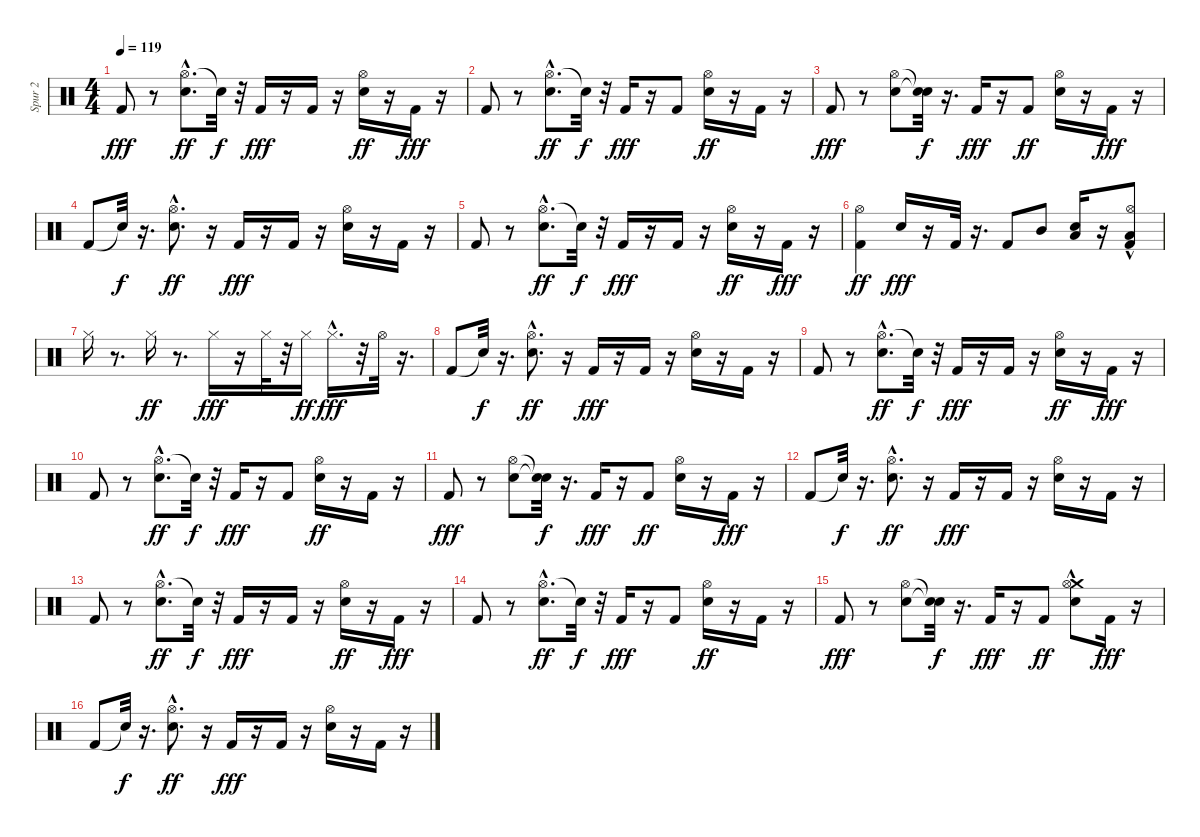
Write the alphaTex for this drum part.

\track ("Spur 2" "Spur 2") {instrument percussion}
\staff {score}
\articulation defaults
\ts (4 4)
\tempo 119
\clef neutral
\ks c "Kick (hit) 2".8{dy fff}
r.8 ("Hi-Hat (open)"{hac} "Electric Snare (hit)").8{d dy ff} "Snare (hit)"{t}.32{dy f} r.32 "Kick (hit) 2".16{dy fff} r.16 "Kick (hit) 2".16 r.16 ("Hi-Hat (open)" "Electric Snare (hit)").16{dy ff} r.16 "Kick (hit) 2".16{dy fff} r.16 |
"Kick (hit) 2".8 r.8 ("Hi-Hat (open)"{hac} "Electric Snare (hit)").8{d dy ff} "Snare (hit)"{t}.32{dy f} r.32 "Kick (hit) 2".16{dy fff} r.16 "Kick (hit) 2".8 ("Hi-Hat (open)" "Electric Snare (hit)").16{dy ff} r.16 "Kick (hit) 2".16 r.16 |
"Kick (hit) 2".8{dy fff} r.8 ("Hi-Hat (open)" "Electric Snare (hit)").8 ("Snare (hit)"{t} "Snare (hit)"{t}).32{dy f} r.16{d} "Kick (hit) 2".16{dy fff} r.16 "Kick (hit) 2".8{dy ff} ("Hi-Hat (open)" "Electric Snare (hit)").16 r.16 "Kick (hit) 2".16{dy fff} r.16 |
"Kick (hit) 2".8 "Snare (hit)"{t}.32{dy f} r.16{d} ("Hi-Hat (open)"{hac} "Electric Snare (hit)").8{d dy ff} r.16 "Kick (hit) 2".16{dy fff} r.16 "Kick (hit) 2".16 r.16 ("Hi-Hat (open)" "Electric Snare (hit)").16 r.16 "Kick (hit) 2".16 r.16 |
"Kick (hit) 2".8 r.8 ("Hi-Hat (open)"{hac} "Electric Snare (hit)").8{d dy ff} "Snare (hit)"{t}.32{dy f} r.32 "Kick (hit) 2".16{dy fff} r.16 "Kick (hit) 2".16 r.16 ("Hi-Hat (open)" "Electric Snare (hit)").16{dy ff} r.16 "Kick (hit) 2".16{dy fff} r.16 |
("Kick (hit) 2" "Hi-Hat (open)").4{dy ff} "Electric Snare (hit)".16{dy fff} r.16 "Kick (hit) 2".32 r.16{d} "Kick (hit) 2".8 "Mid Tom (hit)".8 ("Low Tom (hit)" "Electric Snare (hit)").16 r.16 ("Kick (hit) 2"{hac} "Hi-Hat (open)"{hac} "Low Tom (hit)").8 |
"Hi-Hat (closed)".16 r.8{d} "Hi-Hat (closed)".16{dy ff} r.8{d} "Hi-Hat (closed)".16{dy fff} r.16 "Hi-Hat (closed)".32 r.32 "Hi-Hat (closed)".16{dy ff} "Hi-Hat (closed)"{hac}.16{d dy fff} r.32 "Hi-Hat (open)".32 r.16{d} |
"Kick (hit) 2".8 "Snare (hit)"{t}.32{dy f} r.16{d} ("Hi-Hat (open)"{hac} "Electric Snare (hit)").8{d dy ff} r.16 "Kick (hit) 2".16{dy fff} r.16 "Kick (hit) 2".16 r.16 ("Hi-Hat (open)" "Electric Snare (hit)").16 r.16 "Kick (hit) 2".16 r.16 |
"Kick (hit) 2".8 r.8 ("Hi-Hat (open)"{hac} "Electric Snare (hit)").8{d dy ff} "Snare (hit)"{t}.32{dy f} r.32 "Kick (hit) 2".16{dy fff} r.16 "Kick (hit) 2".16 r.16 ("Hi-Hat (open)" "Electric Snare (hit)").16{dy ff} r.16 "Kick (hit) 2".16{dy fff} r.16 |
"Kick (hit) 2".8 r.8 ("Hi-Hat (open)"{hac} "Electric Snare (hit)").8{d dy ff} "Snare (hit)"{t}.32{dy f} r.32 "Kick (hit) 2".16{dy fff} r.16 "Kick (hit) 2".8 ("Hi-Hat (open)" "Electric Snare (hit)").16{dy ff} r.16 "Kick (hit) 2".16 r.16 |
"Kick (hit) 2".8{dy fff} r.8 ("Hi-Hat (open)" "Electric Snare (hit)").8 ("Snare (hit)"{t} "Snare (hit)"{t}).32{dy f} r.16{d} "Kick (hit) 2".16{dy fff} r.16 "Kick (hit) 2".8{dy ff} ("Hi-Hat (open)" "Electric Snare (hit)").16 r.16 "Kick (hit) 2".16{dy fff} r.16 |
"Kick (hit) 2".8 "Snare (hit)"{t}.32{dy f} r.16{d} ("Hi-Hat (open)"{hac} "Electric Snare (hit)").8{d dy ff} r.16 "Kick (hit) 2".16{dy fff} r.16 "Kick (hit) 2".16 r.16 ("Hi-Hat (open)" "Electric Snare (hit)").16 r.16 "Kick (hit) 2".16 r.16 |
"Kick (hit) 2".8 r.8 ("Hi-Hat (open)"{hac} "Electric Snare (hit)").8{d dy ff} "Snare (hit)"{t}.32{dy f} r.32 "Kick (hit) 2".16{dy fff} r.16 "Kick (hit) 2".16 r.16 ("Hi-Hat (open)" "Electric Snare (hit)").16{dy ff} r.16 "Kick (hit) 2".16{dy fff} r.16 |
"Kick (hit) 2".8 r.8 ("Hi-Hat (open)"{hac} "Electric Snare (hit)").8{d dy ff} "Snare (hit)"{t}.32{dy f} r.32 "Kick (hit) 2".16{dy fff} r.16 "Kick (hit) 2".8 ("Hi-Hat (open)" "Electric Snare (hit)").16{dy ff} r.16 "Kick (hit) 2".16 r.16 |
"Kick (hit) 2".8{dy fff} r.8 ("Hi-Hat (open)" "Electric Snare (hit)").8 ("Snare (hit)"{t} "Snare (hit)"{t}).32{dy f} r.16{d} "Kick (hit) 2".16{dy fff} r.16 "Kick (hit) 2".8{dy ff} ("Crash medium (hit)"{hac} "Hi-Hat (open)" "Electric Snare (hit)").8 "Kick (hit) 2".16{dy fff} r.16 |
"Kick (hit) 2".8 "Snare (hit)"{t}.32{dy f} r.16{d} ("Hi-Hat (open)"{hac} "Electric Snare (hit)").8{d dy ff} r.16 "Kick (hit) 2".16{dy fff} r.16 "Kick (hit) 2".16 r.16 ("Hi-Hat (open)" "Electric Snare (hit)").16 r.16 "Kick (hit) 2".16 r.16
